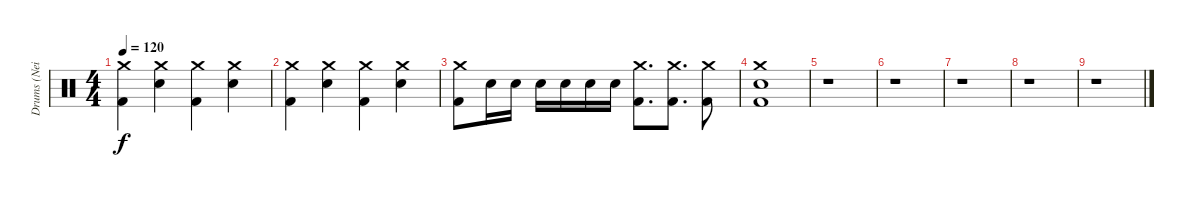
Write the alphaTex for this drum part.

\track ("Drums (Neil)" "Drums (Nei") {instrument percussion}
\staff {score}
\articulation defaults
\ts (4 4)
\tempo 120
\clef neutral
\ks c
("Crash medium (hit)" "Kick (hit) 2").4{dy f} ("Crash medium (hit)" "Electric Snare (hit)").4 ("Crash medium (hit)" "Kick (hit) 2").4 ("Crash medium (hit)" "Electric Snare (hit)").4 |
("Crash medium (hit)" "Kick (hit) 2").4 ("Crash medium (hit)" "Electric Snare (hit)").4 ("Crash medium (hit)" "Kick (hit) 2").4 ("Crash medium (hit)" "Electric Snare (hit)").4 |
("Crash medium (hit)" "Kick (hit) 2").8 "Electric Snare (hit)".16 "Electric Snare (hit)".16 "Snare (hit) 2".16 "Snare (hit) 2".16 "Snare (hit) 2".16 "Snare (hit) 2".16 ("Crash medium (hit)" "Kick (hit) 2").8{d} ("Crash medium (hit)" "Kick (hit) 2").8{d} ("Crash medium (hit)" "Kick (hit) 2").8 |
("Crash medium (hit)" "Electric Snare (hit)" "Kick (hit) 2").1 |
r.1 |
r.1 |
r.1 |
r.1 |
r.1
